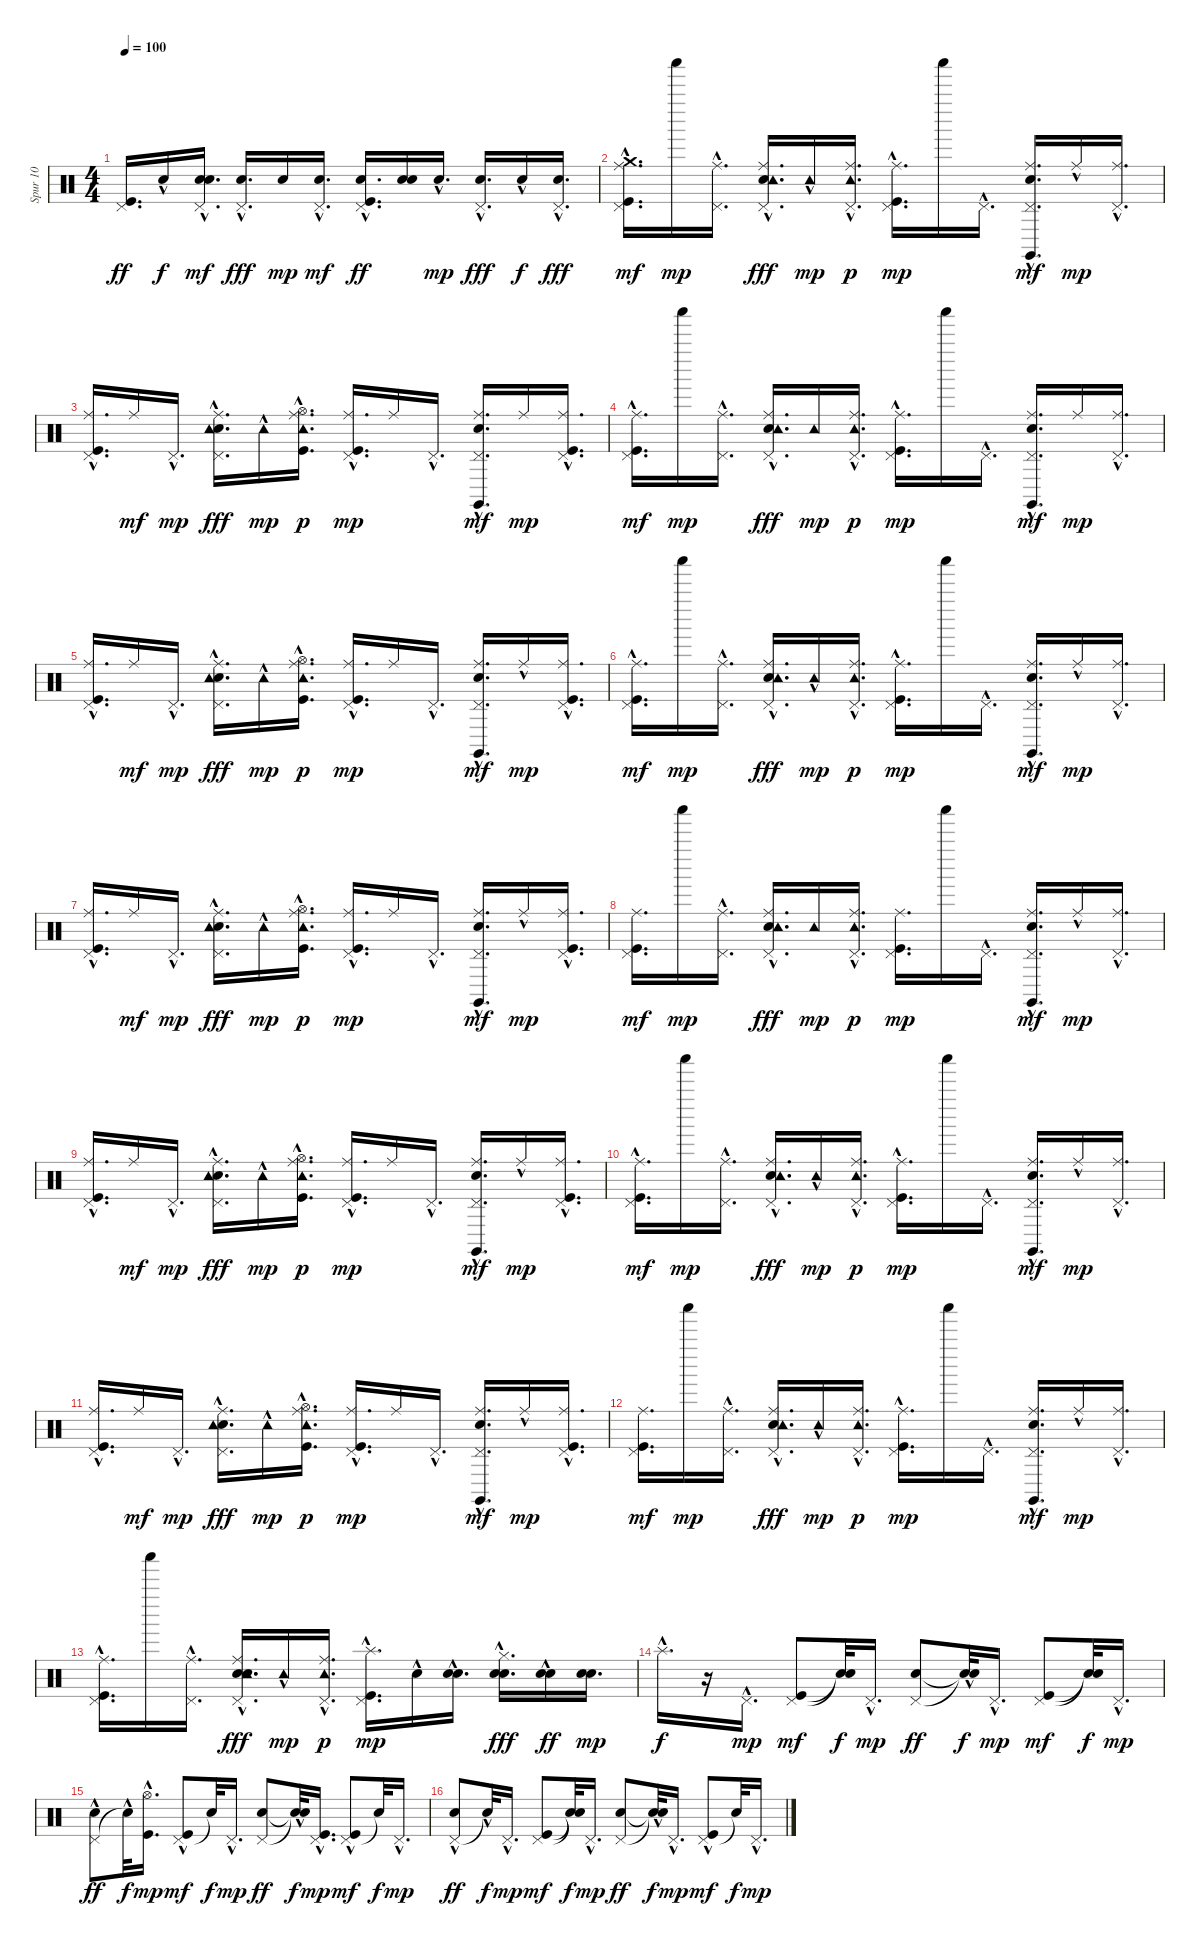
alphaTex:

\track ("Spur 10" "Spur 10") {instrument percussion}
\staff {score}
\articulation defaults
\ts (4 4)
\tempo 100
\clef neutral
\ks c
("Pedal Hi-Hat (hit)" "Kick (hit)").16{d dy ff} "Hand Clap (hit)"{hac}.16{dy f} ("Snare (hit) 2" "Hand Clap (hit)"{hac} "Pedal Hi-Hat (hit)"{hac}).16{d dy mf} ("Pedal Hi-Hat (hit)"{hac} "Hand Clap (hit)"{hac}).16{d dy fff} "Hand Clap (hit)".16{dy mp} ("Hand Clap (hit)" "Pedal Hi-Hat (hit)"{hac}).16{d dy mf} ("Snare (hit) 2"{hac} "Pedal Hi-Hat (hit)"{hac} "Kick (hit)").16{d dy ff} ("Snare (hit) 2" "Hand Clap (hit)").16 "Hand Clap (hit)"{hac}.16{d dy mp} ("Pedal Hi-Hat (hit)" "Hand Clap (hit)"{hac}).16{d dy fff} "Hand Clap (hit)"{hac}.16{dy f} ("Pedal Hi-Hat (hit)"{hac} "Hand Clap (hit)"{hac}).16{d dy fff} |
("Crash medium (hit)" "Ride (middle)"{hac} "Pedal Hi-Hat (hit)"{hac} "Kick (hit)").16{d dy mf} "Shaker (hit)".16{dy mp} ("Pedal Hi-Hat (hit)"{hac} "Ride (middle)"{hac}).16{d} ("Pedal Hi-Hat (hit)"{hac} "Hand Clap (hit)"{hac} "Ride (middle)"{hac} "Tambourine (hit)"{hac}).16{d dy fff} "Tambourine (hit)"{hac}.16{dy mp} ("Pedal Hi-Hat (hit)"{hac} "Ride (middle)"{hac} "Tambourine (hit)"{hac}).16{d dy p} ("Pedal Hi-Hat (hit)"{hac} "Kick (hit)"{hac} "Ride (middle)"{hac}).16{d dy mp} "Shaker (hit)".16 "Pedal Hi-Hat (hit)"{hac}.16{d} ("Pedal Hi-Hat (hit)" "Hand Clap (hit)"{hac} "Ride (middle)"{hac} "Claves (hit)").16{d dy mf} "Ride (middle)"{hac}.16{dy mp} ("Pedal Hi-Hat (hit)"{hac} "Ride (middle)"{hac}).16{d} |
("Pedal Hi-Hat (hit)" "Kick (hit)"{hac} "Ride (middle)"{hac}).16{d} "Ride (middle)".16{dy mf} "Pedal Hi-Hat (hit)"{hac}.16{d dy mp} ("Pedal Hi-Hat (hit)"{hac} "Hand Clap (hit)"{hac} "Ride (middle)"{hac} "Tambourine (hit)"{hac}).16{d dy fff} "Tambourine (hit)"{hac}.16{dy mp} ("Hi-Hat (open)"{hac} "Kick (hit)"{hac} "Ride (middle)"{hac} "Tambourine (hit)"{hac}).16{d dy p} ("Pedal Hi-Hat (hit)" "Kick (hit)"{hac} "Ride (middle)"{hac}).16{d dy mp} "Ride (middle)".16 "Pedal Hi-Hat (hit)"{hac}.16{d} ("Pedal Hi-Hat (hit)"{hac} "Hand Clap (hit)"{hac} "Ride (middle)"{hac} "Claves (hit)").16{d dy mf} "Ride (middle)".16{dy mp} ("Pedal Hi-Hat (hit)"{hac} "Kick (hit)"{hac} "Ride (middle)"{hac}).16{d} |
("Ride (middle)" "Pedal Hi-Hat (hit)"{hac} "Kick (hit)"{hac}).16{d dy mf} "Shaker (hit)".16{dy mp} ("Pedal Hi-Hat (hit)"{hac} "Ride (middle)"{hac}).16{d} ("Pedal Hi-Hat (hit)"{hac} "Hand Clap (hit)" "Ride (middle)"{hac} "Tambourine (hit)"{hac}).16{d dy fff} "Tambourine (hit)".16{dy mp} ("Pedal Hi-Hat (hit)"{hac} "Ride (middle)"{hac} "Tambourine (hit)"{hac}).16{d dy p} ("Pedal Hi-Hat (hit)" "Kick (hit)"{hac} "Ride (middle)").16{d dy mp} "Shaker (hit)".16 "Pedal Hi-Hat (hit)"{hac}.16{d} ("Pedal Hi-Hat (hit)"{hac} "Hand Clap (hit)"{hac} "Ride (middle)"{hac} "Claves (hit)").16{d dy mf} "Ride (middle)".16{dy mp} ("Pedal Hi-Hat (hit)"{hac} "Ride (middle)"{hac}).16{d} |
("Pedal Hi-Hat (hit)" "Kick (hit)"{hac} "Ride (middle)"{hac}).16{d} "Ride (middle)".16{dy mf} "Pedal Hi-Hat (hit)"{hac}.16{d dy mp} ("Pedal Hi-Hat (hit)"{hac} "Hand Clap (hit)" "Ride (middle)" "Tambourine (hit)"{hac}).16{d dy fff} "Tambourine (hit)"{hac}.16{dy mp} ("Hi-Hat (open)" "Kick (hit)"{hac} "Ride (middle)"{hac} "Tambourine (hit)"{hac}).16{d dy p} ("Pedal Hi-Hat (hit)" "Kick (hit)"{hac} "Ride (middle)"{hac}).16{d dy mp} "Ride (middle)".16 "Pedal Hi-Hat (hit)"{hac}.16{d} ("Pedal Hi-Hat (hit)"{hac} "Hand Clap (hit)" "Ride (middle)"{hac} "Claves (hit)").16{d dy mf} "Ride (middle)"{hac}.16{dy mp} ("Pedal Hi-Hat (hit)"{hac} "Kick (hit)"{hac} "Ride (middle)"{hac}).16{d} |
("Ride (middle)" "Pedal Hi-Hat (hit)"{hac} "Kick (hit)").16{d dy mf} "Shaker (hit)".16{dy mp} ("Pedal Hi-Hat (hit)"{hac} "Ride (middle)"{hac}).16{d} ("Pedal Hi-Hat (hit)"{hac} "Hand Clap (hit)" "Ride (middle)" "Tambourine (hit)"{hac}).16{d dy fff} "Tambourine (hit)"{hac}.16{dy mp} ("Pedal Hi-Hat (hit)"{hac} "Ride (middle)"{hac} "Tambourine (hit)"{hac}).16{d dy p} ("Pedal Hi-Hat (hit)"{hac} "Kick (hit)" "Ride (middle)").16{d dy mp} "Shaker (hit)".16 "Pedal Hi-Hat (hit)"{hac}.16{d} ("Pedal Hi-Hat (hit)"{hac} "Hand Clap (hit)" "Ride (middle)"{hac} "Claves (hit)").16{d dy mf} "Ride (middle)"{hac}.16{dy mp} ("Pedal Hi-Hat (hit)"{hac} "Ride (middle)"{hac}).16{d} |
("Pedal Hi-Hat (hit)"{hac} "Kick (hit)"{hac} "Ride (middle)"{hac}).16{d} "Ride (middle)".16{dy mf} "Pedal Hi-Hat (hit)"{hac}.16{d dy mp} ("Pedal Hi-Hat (hit)" "Hand Clap (hit)" "Ride (middle)" "Tambourine (hit)"{hac}).16{d dy fff} "Tambourine (hit)"{hac}.16{dy mp} ("Hi-Hat (open)" "Kick (hit)"{hac} "Ride (middle)"{hac} "Tambourine (hit)"{hac}).16{d dy p} ("Pedal Hi-Hat (hit)" "Kick (hit)"{hac} "Ride (middle)"{hac}).16{d dy mp} "Ride (middle)".16 "Pedal Hi-Hat (hit)"{hac}.16{d} ("Pedal Hi-Hat (hit)" "Hand Clap (hit)" "Ride (middle)"{hac} "Claves (hit)").16{d dy mf} "Ride (middle)"{hac}.16{dy mp} ("Pedal Hi-Hat (hit)"{hac} "Kick (hit)"{hac} "Ride (middle)"{hac}).16{d} |
("Ride (middle)" "Pedal Hi-Hat (hit)" "Kick (hit)").16{d dy mf} "Shaker (hit)".16{dy mp} ("Pedal Hi-Hat (hit)"{hac} "Ride (middle)"{hac}).16{d} ("Pedal Hi-Hat (hit)"{hac} "Hand Clap (hit)" "Ride (middle)"{hac} "Tambourine (hit)"{hac}).16{d dy fff} "Tambourine (hit)".16{dy mp} ("Pedal Hi-Hat (hit)"{hac} "Ride (middle)"{hac} "Tambourine (hit)"{hac}).16{d dy p} ("Pedal Hi-Hat (hit)" "Kick (hit)" "Ride (middle)").16{d dy mp} "Shaker (hit)".16 "Pedal Hi-Hat (hit)"{hac}.16{d} ("Pedal Hi-Hat (hit)" "Hand Clap (hit)" "Ride (middle)"{hac} "Claves (hit)"{hac}).16{d dy mf} "Ride (middle)"{hac}.16{dy mp} ("Pedal Hi-Hat (hit)"{hac} "Ride (middle)"{hac}).16{d} |
("Pedal Hi-Hat (hit)" "Kick (hit)"{hac} "Ride (middle)"{hac}).16{d} "Ride (middle)".16{dy mf} "Pedal Hi-Hat (hit)"{hac}.16{d dy mp} ("Pedal Hi-Hat (hit)" "Hand Clap (hit)"{hac} "Ride (middle)" "Tambourine (hit)"{hac}).16{d dy fff} "Tambourine (hit)"{hac}.16{dy mp} ("Hi-Hat (open)"{hac} "Kick (hit)"{hac} "Ride (middle)"{hac} "Tambourine (hit)"{hac}).16{d dy p} ("Pedal Hi-Hat (hit)" "Kick (hit)"{hac} "Ride (middle)"{hac}).16{d dy mp} "Ride (middle)".16 "Pedal Hi-Hat (hit)"{hac}.16{d} ("Pedal Hi-Hat (hit)" "Hand Clap (hit)" "Ride (middle)"{hac} "Claves (hit)").16{d dy mf} "Ride (middle)"{hac}.16{dy mp} ("Pedal Hi-Hat (hit)"{hac} "Kick (hit)"{hac} "Ride (middle)"{hac}).16{d} |
("Ride (middle)" "Pedal Hi-Hat (hit)"{hac} "Kick (hit)"{hac}).16{d dy mf} "Shaker (hit)".16{dy mp} ("Pedal Hi-Hat (hit)"{hac} "Ride (middle)"{hac}).16{d} ("Pedal Hi-Hat (hit)" "Hand Clap (hit)" "Ride (middle)" "Tambourine (hit)"{hac}).16{d dy fff} "Tambourine (hit)"{hac}.16{dy mp} ("Pedal Hi-Hat (hit)"{hac} "Ride (middle)"{hac} "Tambourine (hit)"{hac}).16{d dy p} ("Pedal Hi-Hat (hit)" "Kick (hit)" "Ride (middle)"{hac}).16{d dy mp} "Shaker (hit)".16 "Pedal Hi-Hat (hit)"{hac}.16{d} ("Pedal Hi-Hat (hit)"{hac} "Hand Clap (hit)" "Ride (middle)"{hac} "Claves (hit)"{hac}).16{d dy mf} "Ride (middle)"{hac}.16{dy mp} ("Pedal Hi-Hat (hit)"{hac} "Ride (middle)"{hac}).16{d} |
("Pedal Hi-Hat (hit)"{hac} "Kick (hit)"{hac} "Ride (middle)"{hac}).16{d} "Ride (middle)".16{dy mf} "Pedal Hi-Hat (hit)"{hac}.16{d dy mp} ("Pedal Hi-Hat (hit)" "Hand Clap (hit)" "Ride (middle)"{hac} "Tambourine (hit)"{hac}).16{d dy fff} "Tambourine (hit)"{hac}.16{dy mp} ("Hi-Hat (open)"{hac} "Kick (hit)"{hac} "Ride (middle)"{hac} "Tambourine (hit)"{hac}).16{d dy p} ("Pedal Hi-Hat (hit)" "Kick (hit)"{hac} "Ride (middle)"{hac}).16{d dy mp} "Ride (middle)".16 "Pedal Hi-Hat (hit)"{hac}.16{d} ("Pedal Hi-Hat (hit)" "Hand Clap (hit)" "Ride (middle)"{hac} "Claves (hit)"{hac}).16{d dy mf} "Ride (middle)"{hac}.16{dy mp} ("Pedal Hi-Hat (hit)"{hac} "Kick (hit)"{hac} "Ride (middle)"{hac}).16{d} |
("Ride (middle)" "Pedal Hi-Hat (hit)" "Kick (hit)").16{d dy mf} "Shaker (hit)".16{dy mp} ("Pedal Hi-Hat (hit)"{hac} "Ride (middle)"{hac}).16{d} ("Pedal Hi-Hat (hit)" "Hand Clap (hit)" "Ride (middle)" "Tambourine (hit)"{hac}).16{d dy fff} "Tambourine (hit)"{hac}.16{dy mp} ("Pedal Hi-Hat (hit)"{hac} "Ride (middle)"{hac} "Tambourine (hit)"{hac}).16{d dy p} ("Pedal Hi-Hat (hit)" "Kick (hit)"{hac} "Ride (middle)"{hac}).16{d dy mp} "Shaker (hit)".16 "Pedal Hi-Hat (hit)"{hac}.16{d} ("Pedal Hi-Hat (hit)" "Hand Clap (hit)" "Ride (middle)"{hac} "Claves (hit)").16{d dy mf} "Ride (middle)"{hac}.16{dy mp} ("Pedal Hi-Hat (hit)"{hac} "Ride (middle)"{hac}).16{d} |
("Pedal Hi-Hat (hit)" "Kick (hit)"{hac} "Ride (middle)").16{d} "Shaker (hit)".16 ("Pedal Hi-Hat (hit)"{hac} "Ride (middle)"{hac}).16{d} ("Hand Clap (hit)" "Pedal Hi-Hat (hit)" "Hand Clap (hit)" "Ride (middle)" "Tambourine (hit)"{hac}).16{d dy fff} "Tambourine (hit)"{hac}.16{dy mp} ("Pedal Hi-Hat (hit)"{hac} "Ride (middle)" "Tambourine (hit)"{hac}).16{d dy p} ("Pedal Hi-Hat (hit)" "Kick (hit)"{hac} "Splash (hit)"{hac}).16{d dy mp} "Hand Clap (hit)"{hac}.16 ("Hand Clap (hit)"{hac} "Hand Clap (hit)"{hac}).16{d} ("Hand Clap (hit)"{hac} "Hand Clap (hit)"{hac} "Hi-Hat (closed)"{hac}).16{d dy fff} ("Hand Clap (hit)"{hac} "Hand Clap (hit)"{hac}).16{dy ff} ("Hand Clap (hit)" "Hand Clap (hit)").16{d dy mp} |
"Splash (hit)"{hac}.16{d dy f} r.16 "Pedal Hi-Hat (hit)"{hac}.16{d dy mp} ("Pedal Hi-Hat (hit)" "Kick (hit)").8{dy mf} ("Snare (hit)"{t} "Snare (hit)"{t}).32{dy f} "Pedal Hi-Hat (hit)"{hac}.16{d dy mp} ("Pedal Hi-Hat (hit)" "Hand Clap (hit)").8{dy ff} ("Snare (hit)"{t} "Snare (hit)"{hac t}).32{dy f} "Pedal Hi-Hat (hit)"{hac}.16{d dy mp} ("Pedal Hi-Hat (hit)" "Kick (hit)").8{dy mf} ("Snare (hit)"{t} "Snare (hit)"{t}).32{dy f} "Pedal Hi-Hat (hit)"{hac}.16{d dy mp} |
("Pedal Hi-Hat (hit)"{hac} "Hand Clap (hit)").8{dy ff} "Snare (hit)"{hac t}.32{dy f} ("Hi-Hat (open)" "Kick (hit)"{hac}).16{d dy mp} ("Pedal Hi-Hat (hit)"{hac} "Kick (hit)").8{dy mf} "Snare (hit)"{t}.32{dy f} "Pedal Hi-Hat (hit)"{hac}.16{d dy mp} ("Pedal Hi-Hat (hit)" "Hand Clap (hit)").8{dy ff} ("Snare (hit)"{t} "Snare (hit)"{hac t}).32{dy f} ("Pedal Hi-Hat (hit)"{hac} "Kick (hit)"{hac}).16{d dy mp} ("Pedal Hi-Hat (hit)" "Kick (hit)"{hac}).8{dy mf} "Snare (hit)"{t}.32{dy f} "Pedal Hi-Hat (hit)"{hac}.16{d dy mp} |
("Pedal Hi-Hat (hit)"{hac} "Hand Clap (hit)").8{dy ff} "Snare (hit)"{hac t}.32{dy f} "Pedal Hi-Hat (hit)"{hac}.16{d dy mp} ("Pedal Hi-Hat (hit)" "Kick (hit)").8{dy mf} ("Snare (hit)"{t} "Snare (hit)"{t}).32{dy f} "Pedal Hi-Hat (hit)"{hac}.16{d dy mp} ("Pedal Hi-Hat (hit)" "Hand Clap (hit)").8{dy ff} ("Snare (hit)"{t} "Snare (hit)"{hac t}).32{dy f} "Pedal Hi-Hat (hit)"{hac}.16{d dy mp} ("Pedal Hi-Hat (hit)" "Kick (hit)"{hac}).8{dy mf} "Snare (hit)"{t}.32{dy f} "Pedal Hi-Hat (hit)"{hac}.16{d dy mp}
